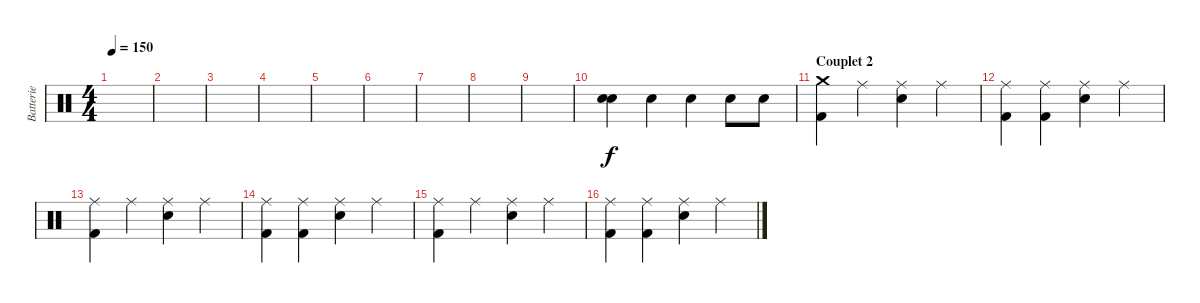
\track ("Batterie" "Batterie") {instrument percussion}
\staff {score}
\articulation defaults
\ts (4 4)
\tempo 150
\clef neutral
\ks c
|
|
|
|
|
|
|
|
|
("Electric Snare (hit)" "Electric Snare (hit)").4{bu 120} "Electric Snare (hit)".4 "Electric Snare (hit)".4 "Electric Snare (hit)".8 "Electric Snare (hit)".8 |
\section ("" "Couplet 2")
("Crash medium (hit)" "Kick (hit) 2").4 "Ride (middle)".4 ("Ride (middle)" "Electric Snare (hit)").4 "Ride (middle)".4 |
("Ride (middle)" "Kick (hit) 2").4 ("Ride (middle)" "Kick (hit) 2").4 ("Ride (middle)" "Electric Snare (hit)").4 "Ride (middle)".4 |
("Ride (middle)" "Kick (hit) 2").4 "Ride (middle)".4 ("Ride (middle)" "Electric Snare (hit)").4 "Ride (middle)".4 |
("Ride (middle)" "Kick (hit) 2").4 ("Ride (middle)" "Kick (hit) 2").4 ("Ride (middle)" "Electric Snare (hit)").4 "Ride (middle)".4 |
("Ride (middle)" "Kick (hit) 2").4 "Ride (middle)".4 ("Ride (middle)" "Electric Snare (hit)").4 "Ride (middle)".4 |
("Ride (middle)" "Kick (hit) 2").4 ("Ride (middle)" "Kick (hit) 2").4 ("Ride (middle)" "Electric Snare (hit)").4 "Ride (middle)".4
